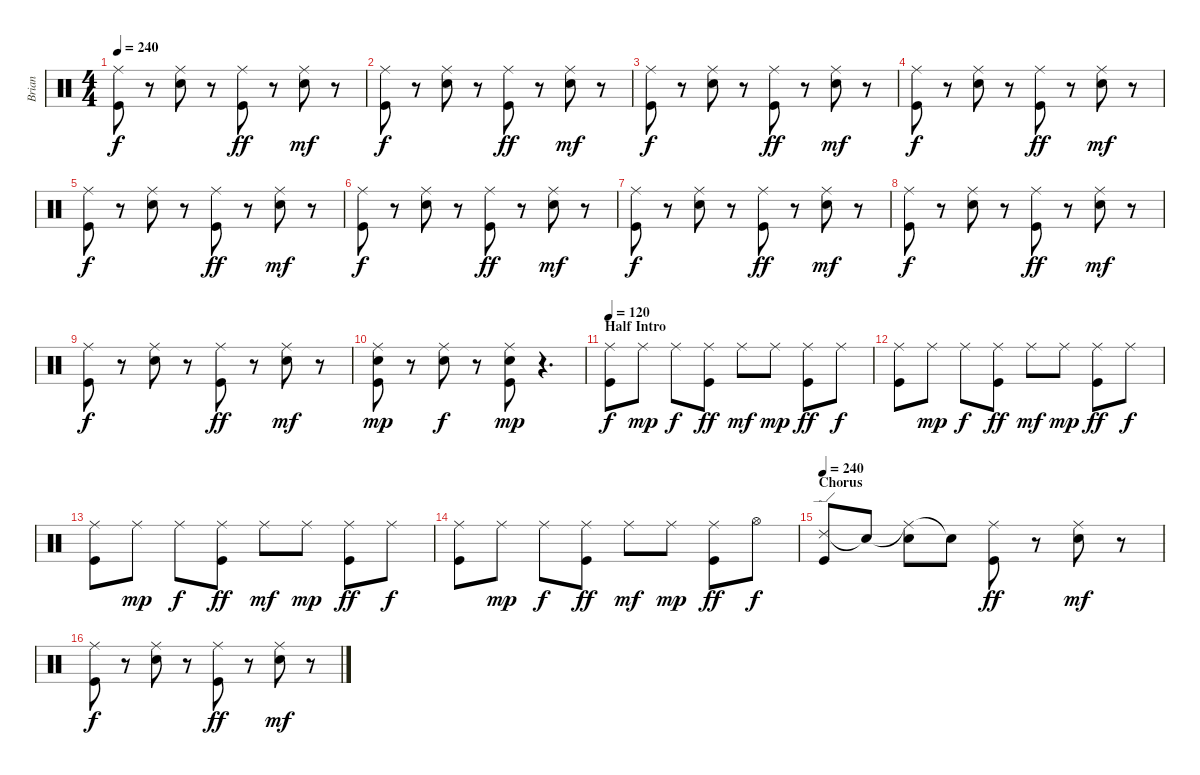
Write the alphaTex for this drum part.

\track ("Brian" "Brian") {instrument percussion}
\staff {score}
\articulation defaults
\ts (4 4)
\tempo 240
\clef neutral
\ks c
("Ride (middle)" "Kick (hit)").8{dy f} r.8 ("Ride (middle)" "Snare (hit) 2").8 r.8 ("Ride (middle)" "Kick (hit)").8{dy ff} r.8 ("Ride (middle)" "Snare (hit) 2").8{dy mf} r.8 |
("Ride (middle)" "Kick (hit)").8{dy f} r.8 ("Ride (middle)" "Snare (hit) 2").8 r.8 ("Ride (middle)" "Kick (hit)").8{dy ff} r.8 ("Ride (middle)" "Snare (hit) 2").8{dy mf} r.8 |
("Ride (middle)" "Kick (hit)").8{dy f} r.8 ("Ride (middle)" "Snare (hit) 2").8 r.8 ("Ride (middle)" "Kick (hit)").8{dy ff} r.8 ("Ride (middle)" "Snare (hit) 2").8{dy mf} r.8 |
("Ride (middle)" "Kick (hit)").8{dy f} r.8 ("Ride (middle)" "Snare (hit) 2").8 r.8 ("Ride (middle)" "Kick (hit)").8{dy ff} r.8 ("Ride (middle)" "Snare (hit) 2").8{dy mf} r.8 |
("Ride (middle)" "Kick (hit)").8{dy f} r.8 ("Ride (middle)" "Snare (hit) 2").8 r.8 ("Ride (middle)" "Kick (hit)").8{dy ff} r.8 ("Ride (middle)" "Snare (hit) 2").8{dy mf} r.8 |
("Ride (middle)" "Kick (hit)").8{dy f} r.8 ("Ride (middle)" "Snare (hit) 2").8 r.8 ("Ride (middle)" "Kick (hit)").8{dy ff} r.8 ("Ride (middle)" "Snare (hit) 2").8{dy mf} r.8 |
("Ride (middle)" "Kick (hit)").8{dy f} r.8 ("Ride (middle)" "Snare (hit) 2").8 r.8 ("Ride (middle)" "Kick (hit)").8{dy ff} r.8 ("Ride (middle)" "Snare (hit) 2").8{dy mf} r.8 |
("Ride (middle)" "Kick (hit)").8{dy f} r.8 ("Ride (middle)" "Snare (hit) 2").8 r.8 ("Ride (middle)" "Kick (hit)").8{dy ff} r.8 ("Ride (middle)" "Snare (hit) 2").8{dy mf} r.8 |
("Ride (middle)" "Kick (hit)").8{dy f} r.8 ("Ride (middle)" "Snare (hit) 2").8 r.8 ("Ride (middle)" "Kick (hit)").8{dy ff} r.8 ("Ride (middle)" "Snare (hit) 2").8{dy mf} r.8 |
("Ride (middle)" "Snare (hit) 2" "Kick (hit)").8{dy mp} r.8 ("Ride (middle)" "Snare (hit) 2").8{dy f} r.8 ("Ride (middle)" "Snare (hit) 2" "Kick (hit)").8{dy mp} r.4{d} |
\section ("" "Half Intro")
\tempo 120
("Ride (middle)" "Kick (hit)").8{dy f} "Ride (middle)".8{dy mp} "Ride (middle)".8{dy f} ("Ride (middle)" "Kick (hit)").8{dy ff} "Ride (middle)".8{dy mf} "Ride (middle)".8{dy mp} ("Ride (middle)" "Kick (hit)").8{dy ff} "Ride (middle)".8{dy f} |
("Ride (middle)" "Kick (hit)").8 "Ride (middle)".8{dy mp} "Ride (middle)".8{dy f} ("Ride (middle)" "Kick (hit)").8{dy ff} "Ride (middle)".8{dy mf} "Ride (middle)".8{dy mp} ("Ride (middle)" "Kick (hit)").8{dy ff} "Ride (middle)".8{dy f} |
("Ride (middle)" "Kick (hit)").8 "Ride (middle)".8{dy mp} "Ride (middle)".8{dy f} ("Ride (middle)" "Kick (hit)").8{dy ff} "Ride (middle)".8{dy mf} "Ride (middle)".8{dy mp} ("Ride (middle)" "Kick (hit)").8{dy ff} "Ride (middle)".8{dy f} |
("Ride (middle)" "Kick (hit)").8 "Ride (middle)".8{dy mp} "Ride (middle)".8{dy f} ("Ride (middle)" "Kick (hit)").8{dy ff} "Ride (middle)".8{dy mf} "Ride (middle)".8{dy mp} ("Ride (middle)" "Kick (hit)").8{dy ff} "Hi-Hat (open)".8{dy f} |
\section ("" "Chorus")
\tempo 240
("Ride (edge) 2" "Kick (hit)").8 "Snare (hit)"{t}.8 ("Ride (middle)"{t} "Snare (hit) 2").8 "Snare (hit)"{t}.8 ("Ride (middle)" "Kick (hit)").8{dy ff} r.8 ("Ride (middle)" "Snare (hit) 2").8{dy mf} r.8 |
("Ride (middle)" "Kick (hit)").8{dy f} r.8 ("Ride (middle)" "Snare (hit) 2").8 r.8 ("Ride (middle)" "Kick (hit)").8{dy ff} r.8 ("Ride (middle)" "Snare (hit) 2").8{dy mf} r.8
